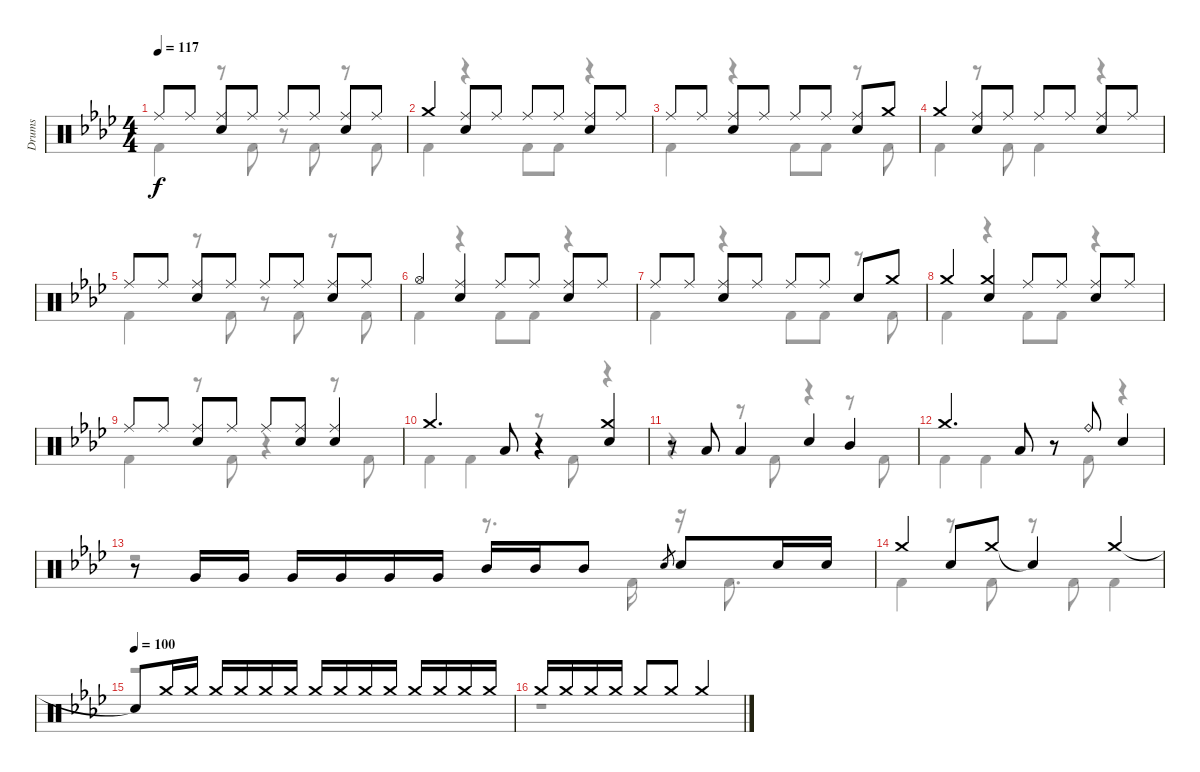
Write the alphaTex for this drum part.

\track ("Drums" "Drums") {instrument percussion}
\staff {score}
\articulation defaults
\voice
\ts (4 4)
\tempo 117
\clef neutral
\ks ab "Ride (middle)".8{dy f} "Ride (middle)".8
("Ride (middle)" "Snare (hit) 2").8 "Ride (middle)".8 "Ride (middle)".8 "Ride (middle)".8 ("Ride (middle)" "Snare (hit) 2").8 "Ride (middle)".8 |
"Crash medium (hit)".4 ("Ride (middle)" "Snare (hit) 2").8 "Ride (middle)".8 "Ride (middle)".8 "Ride (middle)".8 ("Ride (middle)" "Snare (hit) 2").8 "Ride (middle)".8 |
"Ride (middle)".8 "Ride (middle)".8 ("Ride (middle)" "Snare (hit) 2").8 "Ride (middle)".8 "Ride (middle)".8 "Ride (middle)".8 ("Ride (middle)" "Snare (hit) 2").8 "Crash medium (hit)".8 |
"Crash medium (hit)".4 ("Ride (middle)" "Snare (hit) 2").8 "Ride (middle)".8 "Ride (middle)".8 "Ride (middle)".8 ("Ride (middle)" "Snare (hit) 2").8 "Ride (middle)".8 |
"Ride (middle)".8 "Ride (middle)".8 ("Ride (middle)" "Snare (hit) 2").8 "Ride (middle)".8 "Ride (middle)".8 "Ride (middle)".8 ("Ride (middle)" "Snare (hit) 2").8 "Ride (middle)".8 |
"Hi-Hat (open)".4 ("Ride (middle)" "Snare (hit) 2").4 "Ride (middle)".8 "Ride (middle)".8 ("Ride (middle)" "Snare (hit) 2").8 "Ride (middle)".8 |
"Ride (middle)".8 "Ride (middle)".8 ("Ride (middle)" "Snare (hit) 2").8 "Ride (middle)".8 "Ride (middle)".8 "Ride (middle)".8 "Snare (hit) 2".8 "Crash medium (hit)".8 |
"Crash medium (hit)".4 ("Crash medium (hit)" "Snare (hit) 2").4 "Ride (middle)".8 "Ride (middle)".8 ("Ride (middle)" "Snare (hit) 2").8 "Ride (middle)".8 |
"Ride (middle)".8 "Ride (middle)".8 ("Ride (middle)" "Snare (hit) 2").8 "Ride (middle)".8 "Ride (middle)".8 ("Ride (middle)" "Snare (hit) 2").8 ("Ride (middle)" "Snare (hit) 2").4 |
"Crash medium (hit)".4{d} "Low Tom (hit)".8 r.4 ("Crash medium (hit)" "Snare (hit) 2").4 |
r.8 "Low Tom (hit)".8 "Low Tom (hit)".4 "Snare (hit) 2".4 "Mid Tom (hit)".4 |
"Crash medium (hit)".4{d} "Low Tom (hit)".8 r.8 "Ride (bell)".8 "Snare (hit) 2".4 |
r.8 "Very Low Tom (hit)".16 "Very Low Tom (hit)".16 "Very Low Tom (hit)".16 "Very Low Tom (hit)".16 "Very Low Tom (hit)".16 "Very Low Tom (hit)".16 "Mid Tom (hit)".16 "Mid Tom (hit)".16 "Mid Tom (hit)".8 "Snare (hit) 2".8{gr} "Snare (hit) 2".8 "Snare (hit) 2".16 "Snare (hit) 2".16 |
"Crash medium (hit)".4 "Snare (hit) 2".8 "Crash medium (hit)".8 "Snare (hit)"{t}.4 "Crash medium (hit)".4 |
\tempo (100)
"Snare (hit)"{t}.8 "Crash medium (hit)".16 "Crash medium (hit)".16 "Crash medium (hit)".16 "Crash medium (hit)".16 "Crash medium (hit)".16 "Crash medium (hit)".16 "Crash medium (hit)".16 "Crash medium (hit)".16 "Crash medium (hit)".16 "Crash medium (hit)".16 "Crash medium (hit)".16 "Crash medium (hit)".16 "Crash medium (hit)".16 "Crash medium (hit)".16 |
"Crash medium (hit)".16 "Crash medium (hit)".16 "Crash medium (hit)".16 "Crash medium (hit)".16 "Crash medium (hit)".8 "Crash medium (hit)".8 "Crash medium (hit)".2
\voice
\clef neutral
\ottava regular
\simile none
\ks ab "Kick (hit) 2".4{dy f}
r.8 "Kick (hit) 2".8 r.8 "Kick (hit) 2".8 r.8 "Kick (hit) 2".8 |
"Kick (hit) 2".4 r.4 "Kick (hit) 2".8 "Kick (hit) 2".8 r.4 |
"Kick (hit) 2".4 r.4 "Kick (hit) 2".8 "Kick (hit) 2".8 r.8 "Kick (hit) 2".8 |
"Kick (hit) 2".4 r.8 "Kick (hit) 2".8 "Kick (hit) 2".4 r.4 |
"Kick (hit) 2".4 r.8 "Kick (hit) 2".8 r.8 "Kick (hit) 2".8 r.8 "Kick (hit) 2".8 |
"Kick (hit) 2".4 r.4 "Kick (hit) 2".8 "Kick (hit) 2".8 r.4 |
"Kick (hit) 2".4 r.4 "Kick (hit) 2".8 "Kick (hit) 2".8 r.8 "Kick (hit) 2".8 |
"Kick (hit) 2".4 r.4 "Kick (hit) 2".8 "Kick (hit) 2".8 r.4 |
"Kick (hit) 2".4 r.8 "Kick (hit) 2".8 r.4 r.8 "Kick (hit) 2".8 |
"Kick (hit) 2".4 "Kick (hit) 2".4 r.8 "Kick (hit) 2".8 r.4 |
r.4 r.8 "Kick (hit) 2".8 r.4 r.8 "Kick (hit) 2".8 |
"Kick (hit) 2".4 "Kick (hit) 2".4 r.8 "Kick (hit) 2".8 r.4 |
r.2 r.8{d} "Kick (hit) 2".16 r.16 "Kick (hit) 2".8{d} |
"Kick (hit) 2".4 r.8 "Kick (hit) 2".8 r.8 "Kick (hit) 2".8 "Kick (hit) 2".4 |
r.1 |
r.1
